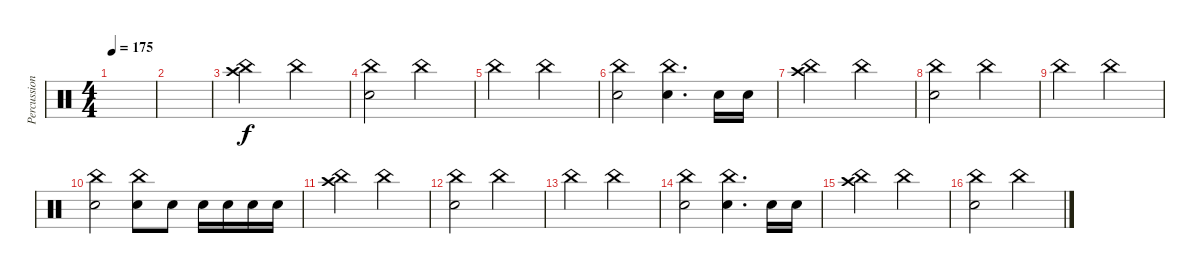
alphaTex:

\track ("Percussion" "Percussion") {instrument percussion}
\staff {score}
\articulation defaults
\ts (4 4)
\tempo 175
\clef neutral
\ks c
|
|
("China (hit)" "Crash high (hit)").2 "China (hit)".2 |
("China (hit)" "Electric Snare (hit)").2 "China (hit)".2 |
"China (hit)".2 "China (hit)".2 |
("China (hit)" "Electric Snare (hit)").2 ("China (hit)" "Electric Snare (hit)").4{d} "Electric Snare (hit)".16 "Electric Snare (hit)".16 |
("China (hit)" "Crash high (hit)").2 "China (hit)".2 |
("China (hit)" "Electric Snare (hit)").2 "China (hit)".2 |
"China (hit)".2 "China (hit)".2 |
("China (hit)" "Electric Snare (hit)").2 ("China (hit)" "Electric Snare (hit)").8 "Electric Snare (hit)".8 "Electric Snare (hit)".16 "Electric Snare (hit)".16 "Electric Snare (hit)".16 "Electric Snare (hit)".16 |
("China (hit)" "Crash high (hit)").2 "China (hit)".2 |
("China (hit)" "Electric Snare (hit)").2 "China (hit)".2 |
"China (hit)".2 "China (hit)".2 |
("China (hit)" "Electric Snare (hit)").2 ("China (hit)" "Electric Snare (hit)").4{d} "Electric Snare (hit)".16 "Electric Snare (hit)".16 |
("China (hit)" "Crash high (hit)").2 "China (hit)".2 |
("China (hit)" "Electric Snare (hit)").2 "China (hit)".2
